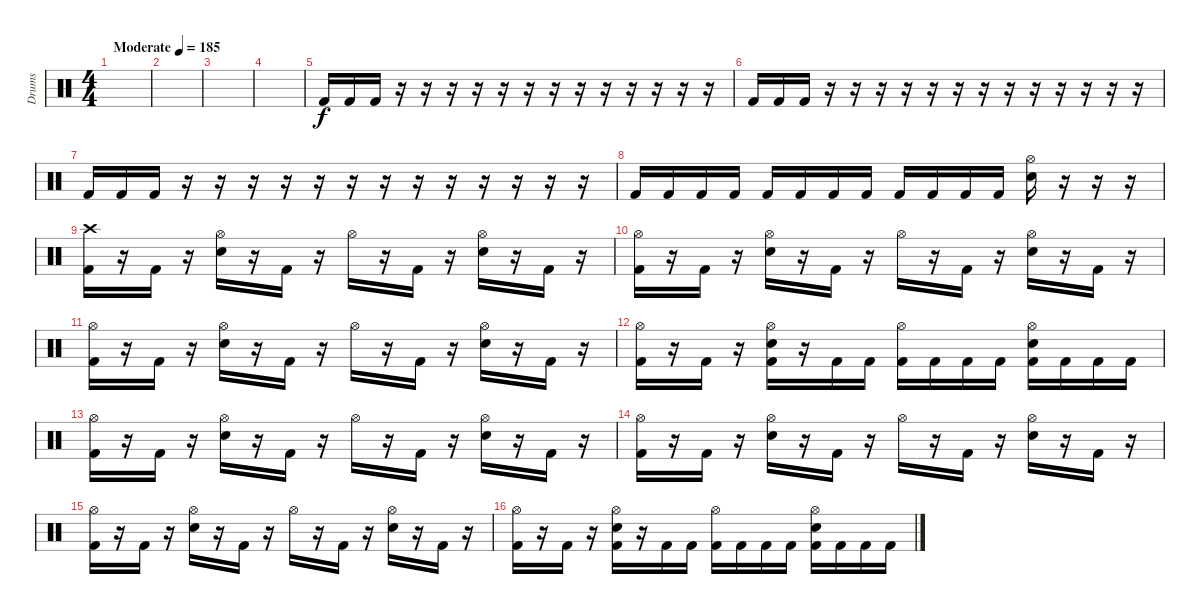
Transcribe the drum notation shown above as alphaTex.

\track ("Drums" "Drums") {instrument percussion}
\staff {score}
\articulation defaults
\ts (4 4)
\tempo (185 "Moderate")
\clef neutral
\ks c
|
|
|
|
"Kick (hit) 2".16 "Kick (hit) 2".16 "Kick (hit) 2".16 r.16 r.16 r.16 r.16 r.16 r.16 r.16 r.16 r.16 r.16 r.16 r.16 r.16 |
"Kick (hit) 2".16 "Kick (hit) 2".16 "Kick (hit) 2".16 r.16 r.16 r.16 r.16 r.16 r.16 r.16 r.16 r.16 r.16 r.16 r.16 r.16 |
"Kick (hit) 2".16 "Kick (hit) 2".16 "Kick (hit) 2".16 r.16 r.16 r.16 r.16 r.16 r.16 r.16 r.16 r.16 r.16 r.16 r.16 r.16 |
"Kick (hit) 2".16 "Kick (hit) 2".16 "Kick (hit) 2".16 "Kick (hit) 2".16 "Kick (hit) 2".16 "Kick (hit) 2".16 "Kick (hit) 2".16 "Kick (hit) 2".16 "Kick (hit) 2".16 "Kick (hit) 2".16 "Kick (hit) 2".16 "Kick (hit) 2".16 ("Electric Snare (hit)" "Hi-Hat (open)").16 r.16 r.16 r.16 |
("Kick (hit) 2" "Crash high (hit)").16 r.16 "Kick (hit) 2".16 r.16 ("Electric Snare (hit)" "Hi-Hat (open)").16 r.16 "Kick (hit) 2".16 r.16 "Hi-Hat (open)".16 r.16 "Kick (hit) 2".16 r.16 ("Electric Snare (hit)" "Hi-Hat (open)").16 r.16 "Kick (hit) 2".16 r.16 |
("Kick (hit) 2" "Hi-Hat (open)").16 r.16 "Kick (hit) 2".16 r.16 ("Electric Snare (hit)" "Hi-Hat (open)").16 r.16 "Kick (hit) 2".16 r.16 "Hi-Hat (open)".16 r.16 "Kick (hit) 2".16 r.16 ("Electric Snare (hit)" "Hi-Hat (open)").16 r.16 "Kick (hit) 2".16 r.16 |
("Kick (hit) 2" "Hi-Hat (open)").16 r.16 "Kick (hit) 2".16 r.16 ("Electric Snare (hit)" "Hi-Hat (open)").16 r.16 "Kick (hit) 2".16 r.16 "Hi-Hat (open)".16 r.16 "Kick (hit) 2".16 r.16 ("Electric Snare (hit)" "Hi-Hat (open)").16 r.16 "Kick (hit) 2".16 r.16 |
("Kick (hit) 2" "Hi-Hat (open)").16 r.16 "Kick (hit) 2".16 r.16 ("Kick (hit) 2" "Electric Snare (hit)" "Hi-Hat (open)").16 r.16 "Kick (hit) 2".16 "Kick (hit) 2".16 ("Kick (hit) 2" "Hi-Hat (open)").16 "Kick (hit) 2".16 "Kick (hit) 2".16 "Kick (hit) 2".16 ("Kick (hit) 2" "Electric Snare (hit)" "Hi-Hat (open)").16 "Kick (hit) 2".16 "Kick (hit) 2".16 "Kick (hit) 2".16 |
("Kick (hit) 2" "Hi-Hat (open)").16 r.16 "Kick (hit) 2".16 r.16 ("Electric Snare (hit)" "Hi-Hat (open)").16 r.16 "Kick (hit) 2".16 r.16 "Hi-Hat (open)".16 r.16 "Kick (hit) 2".16 r.16 ("Electric Snare (hit)" "Hi-Hat (open)").16 r.16 "Kick (hit) 2".16 r.16 |
("Kick (hit) 2" "Hi-Hat (open)").16 r.16 "Kick (hit) 2".16 r.16 ("Electric Snare (hit)" "Hi-Hat (open)").16 r.16 "Kick (hit) 2".16 r.16 "Hi-Hat (open)".16 r.16 "Kick (hit) 2".16 r.16 ("Electric Snare (hit)" "Hi-Hat (open)").16 r.16 "Kick (hit) 2".16 r.16 |
("Kick (hit) 2" "Hi-Hat (open)").16 r.16 "Kick (hit) 2".16 r.16 ("Electric Snare (hit)" "Hi-Hat (open)").16 r.16 "Kick (hit) 2".16 r.16 "Hi-Hat (open)".16 r.16 "Kick (hit) 2".16 r.16 ("Electric Snare (hit)" "Hi-Hat (open)").16 r.16 "Kick (hit) 2".16 r.16 |
("Kick (hit) 2" "Hi-Hat (open)").16 r.16 "Kick (hit) 2".16 r.16 ("Kick (hit) 2" "Electric Snare (hit)" "Hi-Hat (open)").16 r.16 "Kick (hit) 2".16 "Kick (hit) 2".16 ("Kick (hit) 2" "Hi-Hat (open)").16 "Kick (hit) 2".16 "Kick (hit) 2".16 "Kick (hit) 2".16 ("Kick (hit) 2" "Electric Snare (hit)" "Hi-Hat (open)").16 "Kick (hit) 2".16 "Kick (hit) 2".16 "Kick (hit) 2".16
